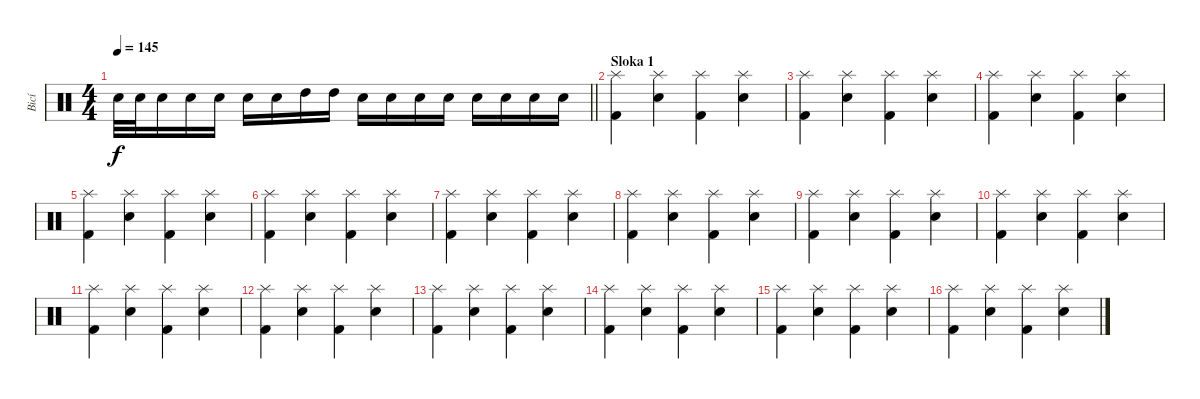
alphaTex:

\track ("Bicí" "Bicí") {instrument percussion}
\staff {score}
\articulation defaults
\ts (4 4)
\tempo 145
\clef neutral
\barLineRight lightlight
\ks c "Electric Snare (hit)".32{dy f} "Electric Snare (hit)".32 "Electric Snare (hit)".16 "Electric Snare (hit)".16 "Electric Snare (hit)".16 "Electric Snare (hit)".16 "Electric Snare (hit)".16 "High Tom (hit)".16 "High Tom (hit)".16 "Electric Snare (hit)".16 "Electric Snare (hit)".16 "Electric Snare (hit)".16 "Electric Snare (hit)".16 "Electric Snare (hit)".16 "Electric Snare (hit)".16 "Electric Snare (hit)".16 "Electric Snare (hit)".16
|
\section ("" "Sloka 1")
("Kick (hit) 2" "Splash (hit)").4 ("Electric Snare (hit)" "Splash (hit)").4 ("Kick (hit) 2" "Splash (hit)").4 ("Electric Snare (hit)" "Splash (hit)").4 |
("Kick (hit) 2" "Splash (hit)").4 ("Electric Snare (hit)" "Splash (hit)").4 ("Kick (hit) 2" "Splash (hit)").4 ("Electric Snare (hit)" "Splash (hit)").4 |
("Kick (hit) 2" "Splash (hit)").4 ("Electric Snare (hit)" "Splash (hit)").4 ("Kick (hit) 2" "Splash (hit)").4 ("Electric Snare (hit)" "Splash (hit)").4 |
("Kick (hit) 2" "Splash (hit)").4 ("Electric Snare (hit)" "Splash (hit)").4 ("Kick (hit) 2" "Splash (hit)").4 ("Electric Snare (hit)" "Splash (hit)").4 |
("Kick (hit) 2" "Splash (hit)").4 ("Electric Snare (hit)" "Splash (hit)").4 ("Kick (hit) 2" "Splash (hit)").4 ("Electric Snare (hit)" "Splash (hit)").4 |
("Kick (hit) 2" "Splash (hit)").4 ("Electric Snare (hit)" "Splash (hit)").4 ("Kick (hit) 2" "Splash (hit)").4 ("Electric Snare (hit)" "Splash (hit)").4 |
("Kick (hit) 2" "Splash (hit)").4 ("Electric Snare (hit)" "Splash (hit)").4 ("Kick (hit) 2" "Splash (hit)").4 ("Electric Snare (hit)" "Splash (hit)").4 |
("Kick (hit) 2" "Splash (hit)").4 ("Electric Snare (hit)" "Splash (hit)").4 ("Kick (hit) 2" "Splash (hit)").4 ("Electric Snare (hit)" "Splash (hit)").4 |
("Kick (hit) 2" "Splash (hit)").4 ("Electric Snare (hit)" "Splash (hit)").4 ("Kick (hit) 2" "Splash (hit)").4 ("Electric Snare (hit)" "Splash (hit)").4 |
("Kick (hit) 2" "Splash (hit)").4 ("Electric Snare (hit)" "Splash (hit)").4 ("Kick (hit) 2" "Splash (hit)").4 ("Electric Snare (hit)" "Splash (hit)").4 |
("Kick (hit) 2" "Splash (hit)").4 ("Electric Snare (hit)" "Splash (hit)").4 ("Kick (hit) 2" "Splash (hit)").4 ("Electric Snare (hit)" "Splash (hit)").4 |
("Kick (hit) 2" "Splash (hit)").4 ("Electric Snare (hit)" "Splash (hit)").4 ("Kick (hit) 2" "Splash (hit)").4 ("Electric Snare (hit)" "Splash (hit)").4 |
("Kick (hit) 2" "Splash (hit)").4 ("Electric Snare (hit)" "Splash (hit)").4 ("Kick (hit) 2" "Splash (hit)").4 ("Electric Snare (hit)" "Splash (hit)").4 |
("Kick (hit) 2" "Splash (hit)").4 ("Electric Snare (hit)" "Splash (hit)").4 ("Kick (hit) 2" "Splash (hit)").4 ("Electric Snare (hit)" "Splash (hit)").4 |
("Kick (hit) 2" "Splash (hit)").4 ("Electric Snare (hit)" "Splash (hit)").4 ("Kick (hit) 2" "Splash (hit)").4 ("Electric Snare (hit)" "Splash (hit)").4
